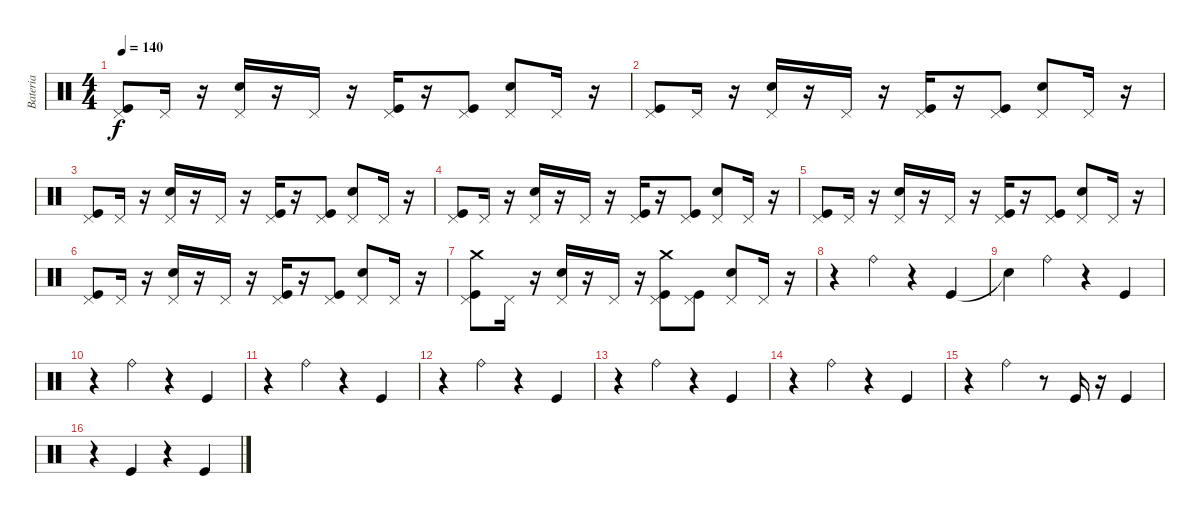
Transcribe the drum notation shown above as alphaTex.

\track ("Bateria" "Bateria") {instrument percussion}
\staff {score}
\articulation defaults
\ts (4 4)
\tempo 140
\clef neutral
\ks c
("Pedal Hi-Hat (hit)" "Kick (hit)").8{dy f} "Pedal Hi-Hat (hit)".16 r.16 ("Pedal Hi-Hat (hit)" "Snare (hit) 2").16 r.16 "Pedal Hi-Hat (hit)".16 r.16 ("Pedal Hi-Hat (hit)" "Kick (hit)").16 r.16 ("Pedal Hi-Hat (hit)" "Kick (hit)").8 ("Pedal Hi-Hat (hit)" "Snare (hit) 2").8 "Pedal Hi-Hat (hit)".16 r.16 |
("Pedal Hi-Hat (hit)" "Kick (hit)").8 "Pedal Hi-Hat (hit)".16 r.16 ("Pedal Hi-Hat (hit)" "Snare (hit) 2").16 r.16 "Pedal Hi-Hat (hit)".16 r.16 ("Pedal Hi-Hat (hit)" "Kick (hit)").16 r.16 ("Pedal Hi-Hat (hit)" "Kick (hit)").8 ("Pedal Hi-Hat (hit)" "Snare (hit) 2").8 "Pedal Hi-Hat (hit)".16 r.16 |
("Pedal Hi-Hat (hit)" "Kick (hit)").8 "Pedal Hi-Hat (hit)".16 r.16 ("Pedal Hi-Hat (hit)" "Snare (hit) 2").16 r.16 "Pedal Hi-Hat (hit)".16 r.16 ("Pedal Hi-Hat (hit)" "Kick (hit)").16 r.16 ("Pedal Hi-Hat (hit)" "Kick (hit)").8 ("Pedal Hi-Hat (hit)" "Snare (hit) 2").8 "Pedal Hi-Hat (hit)".16 r.16 |
("Pedal Hi-Hat (hit)" "Kick (hit)").8 "Pedal Hi-Hat (hit)".16 r.16 ("Pedal Hi-Hat (hit)" "Snare (hit) 2").16 r.16 "Pedal Hi-Hat (hit)".16 r.16 ("Pedal Hi-Hat (hit)" "Kick (hit)").16 r.16 ("Pedal Hi-Hat (hit)" "Kick (hit)").8 ("Pedal Hi-Hat (hit)" "Snare (hit) 2").8 "Pedal Hi-Hat (hit)".16 r.16 |
("Pedal Hi-Hat (hit)" "Kick (hit)").8 "Pedal Hi-Hat (hit)".16 r.16 ("Pedal Hi-Hat (hit)" "Snare (hit) 2").16 r.16 "Pedal Hi-Hat (hit)".16 r.16 ("Pedal Hi-Hat (hit)" "Kick (hit)").16 r.16 ("Pedal Hi-Hat (hit)" "Kick (hit)").8 ("Pedal Hi-Hat (hit)" "Snare (hit) 2").8 "Pedal Hi-Hat (hit)".16 r.16 |
("Pedal Hi-Hat (hit)" "Kick (hit)").8 "Pedal Hi-Hat (hit)".16 r.16 ("Pedal Hi-Hat (hit)" "Snare (hit) 2").16 r.16 "Pedal Hi-Hat (hit)".16 r.16 ("Pedal Hi-Hat (hit)" "Kick (hit)").16 r.16 ("Pedal Hi-Hat (hit)" "Kick (hit)").8 ("Pedal Hi-Hat (hit)" "Snare (hit) 2").8 "Pedal Hi-Hat (hit)".16 r.16 |
("Crash medium (hit)" "Pedal Hi-Hat (hit)" "Kick (hit)").8 "Pedal Hi-Hat (hit)".16 r.16 ("Pedal Hi-Hat (hit)" "Snare (hit) 2").16 r.16 "Pedal Hi-Hat (hit)".16 r.16 ("Crash medium (hit)" "Pedal Hi-Hat (hit)" "Kick (hit)").8 ("Pedal Hi-Hat (hit)" "Kick (hit)").8 ("Pedal Hi-Hat (hit)" "Snare (hit) 2").8 "Pedal Hi-Hat (hit)".16 r.16 |
r.4 "Ride (bell)".4 r.4 "Kick (hit)".4 |
"Snare (hit)"{t}.4 "Ride (bell)".4 r.4 "Kick (hit)".4 |
r.4 "Ride (bell)".4 r.4 "Kick (hit)".4 |
r.4 "Ride (bell)".4 r.4 "Kick (hit)".4 |
r.4 "Ride (bell)".4 r.4 "Kick (hit)".4 |
r.4 "Ride (bell)".4 r.4 "Kick (hit)".4 |
r.4 "Ride (bell)".4 r.4 "Kick (hit)".4 |
r.4 "Ride (bell)".4 r.8 "Kick (hit)".16 r.16 "Kick (hit)".4 |
r.4 "Kick (hit)".4 r.4 "Kick (hit)".4
